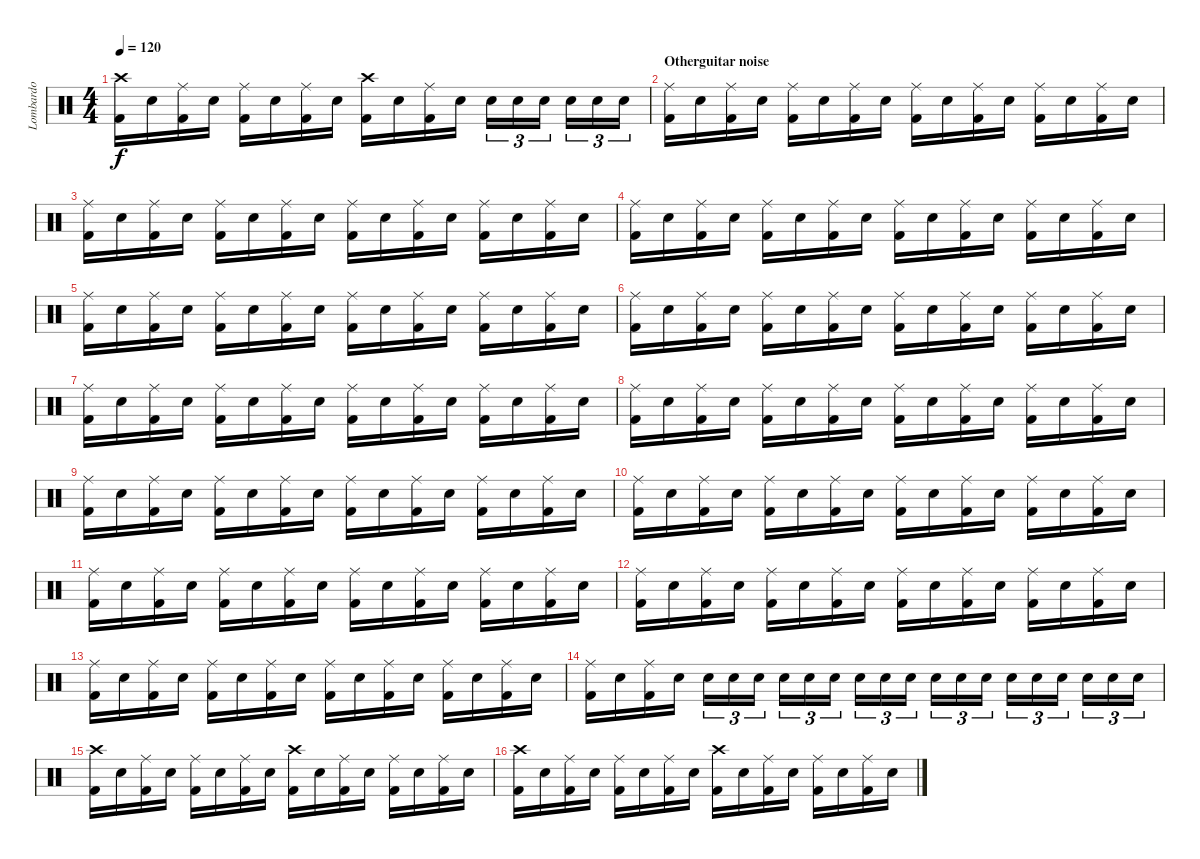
\track ("Lombardo" "Lombardo") {instrument percussion}
\staff {score}
\articulation defaults
\ts (4 4)
\tempo 120
\clef neutral
\ks c
("Crash high (hit)" "Kick (hit) 2").16{dy f} "Electric Snare (hit)".16 ("Ride (middle)" "Kick (hit) 2").16 "Electric Snare (hit)".16 ("Ride (middle)" "Kick (hit) 2").16 "Electric Snare (hit)".16 ("Ride (middle)" "Kick (hit) 2").16 "Electric Snare (hit)".16 ("Crash high (hit)" "Kick (hit) 2").16 "Electric Snare (hit)".16 ("Ride (middle)" "Kick (hit) 2").16 "Electric Snare (hit)".16 "Electric Snare (hit)".16{tu (3 2)} "Electric Snare (hit)".16{tu (3 2)} "Electric Snare (hit)".16{tu (3 2)} "Electric Snare (hit)".16{tu (3 2)} "Electric Snare (hit)".16{tu (3 2)} "Electric Snare (hit)".16{tu (3 2)} |
\section ("" "Otherguitar noise")
("Ride (middle)" "Kick (hit) 2").16 "Electric Snare (hit)".16 ("Ride (middle)" "Kick (hit) 2").16 "Electric Snare (hit)".16 ("Ride (middle)" "Kick (hit) 2").16 "Electric Snare (hit)".16 ("Ride (middle)" "Kick (hit) 2").16 "Electric Snare (hit)".16 ("Ride (middle)" "Kick (hit) 2").16 "Electric Snare (hit)".16 ("Ride (middle)" "Kick (hit) 2").16 "Electric Snare (hit)".16 ("Ride (middle)" "Kick (hit) 2").16 "Electric Snare (hit)".16 ("Ride (middle)" "Kick (hit) 2").16 "Electric Snare (hit)".16 |
("Ride (middle)" "Kick (hit) 2").16 "Electric Snare (hit)".16 ("Ride (middle)" "Kick (hit) 2").16 "Electric Snare (hit)".16 ("Ride (middle)" "Kick (hit) 2").16 "Electric Snare (hit)".16 ("Ride (middle)" "Kick (hit) 2").16 "Electric Snare (hit)".16 ("Ride (middle)" "Kick (hit) 2").16 "Electric Snare (hit)".16 ("Ride (middle)" "Kick (hit) 2").16 "Electric Snare (hit)".16 ("Ride (middle)" "Kick (hit) 2").16 "Electric Snare (hit)".16 ("Ride (middle)" "Kick (hit) 2").16 "Electric Snare (hit)".16 |
("Ride (middle)" "Kick (hit) 2").16 "Electric Snare (hit)".16 ("Ride (middle)" "Kick (hit) 2").16 "Electric Snare (hit)".16 ("Ride (middle)" "Kick (hit) 2").16 "Electric Snare (hit)".16 ("Ride (middle)" "Kick (hit) 2").16 "Electric Snare (hit)".16 ("Ride (middle)" "Kick (hit) 2").16 "Electric Snare (hit)".16 ("Ride (middle)" "Kick (hit) 2").16 "Electric Snare (hit)".16 ("Ride (middle)" "Kick (hit) 2").16 "Electric Snare (hit)".16 ("Ride (middle)" "Kick (hit) 2").16 "Electric Snare (hit)".16 |
("Ride (middle)" "Kick (hit) 2").16 "Electric Snare (hit)".16 ("Ride (middle)" "Kick (hit) 2").16 "Electric Snare (hit)".16 ("Ride (middle)" "Kick (hit) 2").16 "Electric Snare (hit)".16 ("Ride (middle)" "Kick (hit) 2").16 "Electric Snare (hit)".16 ("Ride (middle)" "Kick (hit) 2").16 "Electric Snare (hit)".16 ("Ride (middle)" "Kick (hit) 2").16 "Electric Snare (hit)".16 ("Ride (middle)" "Kick (hit) 2").16 "Electric Snare (hit)".16 ("Ride (middle)" "Kick (hit) 2").16 "Electric Snare (hit)".16 |
("Ride (middle)" "Kick (hit) 2").16 "Electric Snare (hit)".16 ("Ride (middle)" "Kick (hit) 2").16 "Electric Snare (hit)".16 ("Ride (middle)" "Kick (hit) 2").16 "Electric Snare (hit)".16 ("Ride (middle)" "Kick (hit) 2").16 "Electric Snare (hit)".16 ("Ride (middle)" "Kick (hit) 2").16 "Electric Snare (hit)".16 ("Ride (middle)" "Kick (hit) 2").16 "Electric Snare (hit)".16 ("Ride (middle)" "Kick (hit) 2").16 "Electric Snare (hit)".16 ("Ride (middle)" "Kick (hit) 2").16 "Electric Snare (hit)".16 |
("Ride (middle)" "Kick (hit) 2").16 "Electric Snare (hit)".16 ("Ride (middle)" "Kick (hit) 2").16 "Electric Snare (hit)".16 ("Ride (middle)" "Kick (hit) 2").16 "Electric Snare (hit)".16 ("Ride (middle)" "Kick (hit) 2").16 "Electric Snare (hit)".16 ("Ride (middle)" "Kick (hit) 2").16 "Electric Snare (hit)".16 ("Ride (middle)" "Kick (hit) 2").16 "Electric Snare (hit)".16 ("Ride (middle)" "Kick (hit) 2").16 "Electric Snare (hit)".16 ("Ride (middle)" "Kick (hit) 2").16 "Electric Snare (hit)".16 |
("Ride (middle)" "Kick (hit) 2").16 "Electric Snare (hit)".16 ("Ride (middle)" "Kick (hit) 2").16 "Electric Snare (hit)".16 ("Ride (middle)" "Kick (hit) 2").16 "Electric Snare (hit)".16 ("Ride (middle)" "Kick (hit) 2").16 "Electric Snare (hit)".16 ("Ride (middle)" "Kick (hit) 2").16 "Electric Snare (hit)".16 ("Ride (middle)" "Kick (hit) 2").16 "Electric Snare (hit)".16 ("Ride (middle)" "Kick (hit) 2").16 "Electric Snare (hit)".16 ("Ride (middle)" "Kick (hit) 2").16 "Electric Snare (hit)".16 |
("Ride (middle)" "Kick (hit) 2").16 "Electric Snare (hit)".16 ("Ride (middle)" "Kick (hit) 2").16 "Electric Snare (hit)".16 ("Ride (middle)" "Kick (hit) 2").16 "Electric Snare (hit)".16 ("Ride (middle)" "Kick (hit) 2").16 "Electric Snare (hit)".16 ("Ride (middle)" "Kick (hit) 2").16 "Electric Snare (hit)".16 ("Ride (middle)" "Kick (hit) 2").16 "Electric Snare (hit)".16 ("Ride (middle)" "Kick (hit) 2").16 "Electric Snare (hit)".16 ("Ride (middle)" "Kick (hit) 2").16 "Electric Snare (hit)".16 |
("Ride (middle)" "Kick (hit) 2").16 "Electric Snare (hit)".16 ("Ride (middle)" "Kick (hit) 2").16 "Electric Snare (hit)".16 ("Ride (middle)" "Kick (hit) 2").16 "Electric Snare (hit)".16 ("Ride (middle)" "Kick (hit) 2").16 "Electric Snare (hit)".16 ("Ride (middle)" "Kick (hit) 2").16 "Electric Snare (hit)".16 ("Ride (middle)" "Kick (hit) 2").16 "Electric Snare (hit)".16 ("Ride (middle)" "Kick (hit) 2").16 "Electric Snare (hit)".16 ("Ride (middle)" "Kick (hit) 2").16 "Electric Snare (hit)".16 |
("Ride (middle)" "Kick (hit) 2").16 "Electric Snare (hit)".16 ("Ride (middle)" "Kick (hit) 2").16 "Electric Snare (hit)".16 ("Ride (middle)" "Kick (hit) 2").16 "Electric Snare (hit)".16 ("Ride (middle)" "Kick (hit) 2").16 "Electric Snare (hit)".16 ("Ride (middle)" "Kick (hit) 2").16 "Electric Snare (hit)".16 ("Ride (middle)" "Kick (hit) 2").16 "Electric Snare (hit)".16 ("Ride (middle)" "Kick (hit) 2").16 "Electric Snare (hit)".16 ("Ride (middle)" "Kick (hit) 2").16 "Electric Snare (hit)".16 |
("Ride (middle)" "Kick (hit) 2").16 "Electric Snare (hit)".16 ("Ride (middle)" "Kick (hit) 2").16 "Electric Snare (hit)".16 ("Ride (middle)" "Kick (hit) 2").16 "Electric Snare (hit)".16 ("Ride (middle)" "Kick (hit) 2").16 "Electric Snare (hit)".16 ("Ride (middle)" "Kick (hit) 2").16 "Electric Snare (hit)".16 ("Ride (middle)" "Kick (hit) 2").16 "Electric Snare (hit)".16 ("Ride (middle)" "Kick (hit) 2").16 "Electric Snare (hit)".16 ("Ride (middle)" "Kick (hit) 2").16 "Electric Snare (hit)".16 |
("Ride (middle)" "Kick (hit) 2").16 "Electric Snare (hit)".16 ("Ride (middle)" "Kick (hit) 2").16 "Electric Snare (hit)".16 ("Ride (middle)" "Kick (hit) 2").16 "Electric Snare (hit)".16 ("Ride (middle)" "Kick (hit) 2").16 "Electric Snare (hit)".16 ("Ride (middle)" "Kick (hit) 2").16 "Electric Snare (hit)".16 ("Ride (middle)" "Kick (hit) 2").16 "Electric Snare (hit)".16 ("Ride (middle)" "Kick (hit) 2").16 "Electric Snare (hit)".16 ("Ride (middle)" "Kick (hit) 2").16 "Electric Snare (hit)".16 |
("Ride (middle)" "Kick (hit) 2").16 "Electric Snare (hit)".16 ("Ride (middle)" "Kick (hit) 2").16 "Electric Snare (hit)".16 "Electric Snare (hit)".16{tu (3 2)} "Electric Snare (hit)".16{tu (3 2)} "Electric Snare (hit)".16{tu (3 2)} "Electric Snare (hit)".16{tu (3 2)} "Electric Snare (hit)".16{tu (3 2)} "Electric Snare (hit)".16{tu (3 2)} "Electric Snare (hit)".16{tu (3 2)} "Electric Snare (hit)".16{tu (3 2)} "Electric Snare (hit)".16{tu (3 2)} "Electric Snare (hit)".16{tu (3 2)} "Electric Snare (hit)".16{tu (3 2)} "Electric Snare (hit)".16{tu (3 2)} "Electric Snare (hit)".16{tu (3 2)} "Electric Snare (hit)".16{tu (3 2)} "Electric Snare (hit)".16{tu (3 2)} "Electric Snare (hit)".16{tu (3 2)} "Electric Snare (hit)".16{tu (3 2)} "Electric Snare (hit)".16{tu (3 2)} |
("Crash high (hit)" "Kick (hit) 2").16 "Electric Snare (hit)".16 ("Ride (middle)" "Kick (hit) 2").16 "Electric Snare (hit)".16 ("Ride (middle)" "Kick (hit) 2").16 "Electric Snare (hit)".16 ("Ride (middle)" "Kick (hit) 2").16 "Electric Snare (hit)".16 ("Crash high (hit)" "Kick (hit) 2").16 "Electric Snare (hit)".16 ("Ride (middle)" "Kick (hit) 2").16 "Electric Snare (hit)".16 ("Ride (middle)" "Kick (hit) 2").16 "Electric Snare (hit)".16 ("Ride (middle)" "Kick (hit) 2").16 "Electric Snare (hit)".16 |
("Crash high (hit)" "Kick (hit) 2").16 "Electric Snare (hit)".16 ("Ride (middle)" "Kick (hit) 2").16 "Electric Snare (hit)".16 ("Ride (middle)" "Kick (hit) 2").16 "Electric Snare (hit)".16 ("Ride (middle)" "Kick (hit) 2").16 "Electric Snare (hit)".16 ("Crash high (hit)" "Kick (hit) 2").16 "Electric Snare (hit)".16 ("Ride (middle)" "Kick (hit) 2").16 "Electric Snare (hit)".16 ("Ride (middle)" "Kick (hit) 2").16 "Electric Snare (hit)".16 ("Ride (middle)" "Kick (hit) 2").16 "Electric Snare (hit)".16
